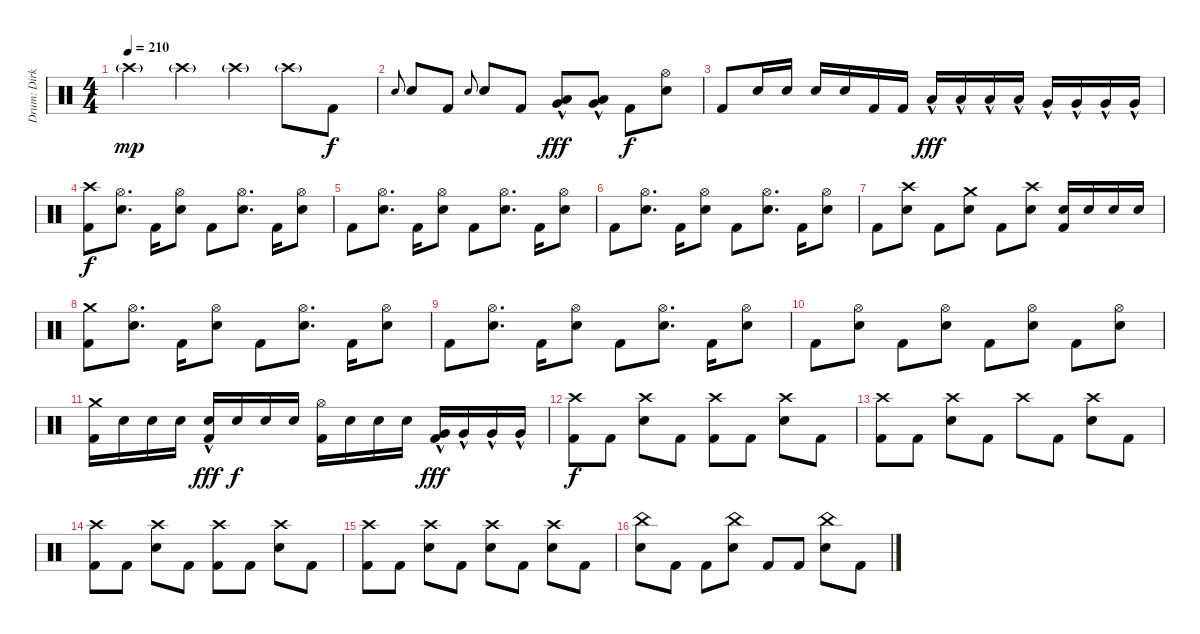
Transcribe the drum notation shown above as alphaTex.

\track ("Drum: Dirk" "Drum: Dirk") {instrument percussion}
\staff {score}
\articulation defaults
\ts (4 4)
\tempo 210
\clef neutral
\ks c "Crash high (hit)"{g}.4{dy mp} "Crash high (hit)"{g}.4 "Crash high (hit)"{g}.4 "Crash high (hit)"{g}.8 "Kick (hit) 2".8{dy f}
|
"Electric Snare (hit)".8{gr onbeat} "Electric Snare (hit)".8 "Kick (hit) 2".8 "Electric Snare (hit)".8{gr onbeat} "Electric Snare (hit)".8 "Kick (hit) 2".8 ("Low Tom (hit)"{hac} "Very Low Tom (hit)"{hac}).8{dy fff} ("Low Tom (hit)"{hac} "Very Low Tom (hit)"{hac}).8 "Kick (hit) 2".8{dy f} ("Hi-Hat (open)" "Electric Snare (hit)").8 |
"Kick (hit) 2".8 "Electric Snare (hit)".16 "Electric Snare (hit)".16 "Electric Snare (hit)".16 "Electric Snare (hit)".16 "Kick (hit) 2".16 "Kick (hit) 2".16 "Low Tom (hit)"{hac}.16{dy fff} "Low Tom (hit)"{hac}.16 "Low Tom (hit)"{hac}.16 "Low Tom (hit)"{hac}.16 "Very Low Tom (hit)"{hac}.16 "Very Low Tom (hit)"{hac}.16 "Very Low Tom (hit)"{hac}.16 "Very Low Tom (hit)"{hac}.16 |
("Crash high (hit)" "Kick (hit) 2").8{dy f} ("Hi-Hat (open)" "Electric Snare (hit)").8{d} "Kick (hit) 2".16 ("Hi-Hat (open)" "Electric Snare (hit)").8 "Kick (hit) 2".8 ("Hi-Hat (open)" "Electric Snare (hit)").8{d} "Kick (hit) 2".16 ("Hi-Hat (open)" "Electric Snare (hit)").8 |
"Kick (hit) 2".8 ("Hi-Hat (open)" "Electric Snare (hit)").8{d} "Kick (hit) 2".16 ("Hi-Hat (open)" "Electric Snare (hit)").8 "Kick (hit) 2".8 ("Hi-Hat (open)" "Electric Snare (hit)").8{d} "Kick (hit) 2".16 ("Hi-Hat (open)" "Electric Snare (hit)").8 |
"Kick (hit) 2".8 ("Hi-Hat (open)" "Electric Snare (hit)").8{d} "Kick (hit) 2".16 ("Hi-Hat (open)" "Electric Snare (hit)").8 "Kick (hit) 2".8 ("Hi-Hat (open)" "Electric Snare (hit)").8{d} "Kick (hit) 2".16 ("Hi-Hat (open)" "Electric Snare (hit)").8 |
"Kick (hit) 2".8 ("Crash high (hit)" "Electric Snare (hit)").8 "Kick (hit) 2".8 ("Crash medium (hit)" "Electric Snare (hit)").8 "Kick (hit) 2".8 ("Crash high (hit)" "Electric Snare (hit)").8 ("Electric Snare (hit)" "Kick (hit) 2").16 "Electric Snare (hit)".16 "Electric Snare (hit)".16 "Electric Snare (hit)".16 |
("Crash medium (hit)" "Kick (hit) 2").8 ("Hi-Hat (open)" "Electric Snare (hit)").8{d} "Kick (hit) 2".16 ("Hi-Hat (open)" "Electric Snare (hit)").8 "Kick (hit) 2".8 ("Hi-Hat (open)" "Electric Snare (hit)").8{d} "Kick (hit) 2".16 ("Hi-Hat (open)" "Electric Snare (hit)").8 |
"Kick (hit) 2".8 ("Hi-Hat (open)" "Electric Snare (hit)").8{d} "Kick (hit) 2".16 ("Hi-Hat (open)" "Electric Snare (hit)").8 "Kick (hit) 2".8 ("Hi-Hat (open)" "Electric Snare (hit)").8{d} "Kick (hit) 2".16 ("Hi-Hat (open)" "Electric Snare (hit)").8 |
"Kick (hit) 2".8 ("Hi-Hat (open)" "Electric Snare (hit)").8 "Kick (hit) 2".8 ("Hi-Hat (open)" "Electric Snare (hit)").8 "Kick (hit) 2".8 ("Hi-Hat (open)" "Electric Snare (hit)").8 "Kick (hit) 2".8 ("Hi-Hat (open)" "Electric Snare (hit)").8 |
("Crash medium (hit)" "Kick (hit) 2").16 "Electric Snare (hit)".16 "Electric Snare (hit)".16 "Electric Snare (hit)".16 ("Electric Snare (hit)"{hac} "Kick (hit) 2").16{dy fff} "Electric Snare (hit)".16{dy f} "Electric Snare (hit)".16 "Electric Snare (hit)".16 ("Hi-Hat (open)" "Kick (hit) 2").16 "Electric Snare (hit)".16 "Electric Snare (hit)".16 "Electric Snare (hit)".16 ("Very Low Tom (hit)"{hac} "Kick (hit) 2").16{dy fff} "Very Low Tom (hit)"{hac}.16 "Very Low Tom (hit)"{hac}.16 "Very Low Tom (hit)"{hac}.16 |
("Crash high (hit)" "Kick (hit) 2").8{dy f} "Kick (hit) 2".8 ("Crash high (hit)" "Electric Snare (hit)").8 "Kick (hit) 2".8 ("Crash high (hit)" "Kick (hit) 2").8 "Kick (hit) 2".8 ("Crash high (hit)" "Electric Snare (hit)").8 "Kick (hit) 2".8 |
("Crash high (hit)" "Kick (hit) 2").8 "Kick (hit) 2".8 ("Crash high (hit)" "Electric Snare (hit)").8 "Kick (hit) 2".8 "Crash high (hit)".8 "Kick (hit) 2".8 ("Crash high (hit)" "Electric Snare (hit)").8 "Kick (hit) 2".8 |
("Crash high (hit)" "Kick (hit) 2").8 "Kick (hit) 2".8 ("Crash high (hit)" "Electric Snare (hit)").8 "Kick (hit) 2".8 ("Crash high (hit)" "Kick (hit) 2").8 "Kick (hit) 2".8 ("Crash high (hit)" "Electric Snare (hit)").8 "Kick (hit) 2".8 |
("Crash high (hit)" "Kick (hit) 2").8 "Kick (hit) 2".8 ("Crash high (hit)" "Electric Snare (hit)").8 "Kick (hit) 2".8 ("Crash high (hit)" "Electric Snare (hit)").8 "Kick (hit) 2".8 ("Crash high (hit)" "Electric Snare (hit)").8 "Kick (hit) 2".8 |
("China (hit)" "Electric Snare (hit)").8 "Kick (hit) 2".8 "Kick (hit) 2".8 ("China (hit)" "Electric Snare (hit)").8 "Kick (hit) 2".8 "Kick (hit) 2".8 ("China (hit)" "Electric Snare (hit)").8 "Kick (hit) 2".8
